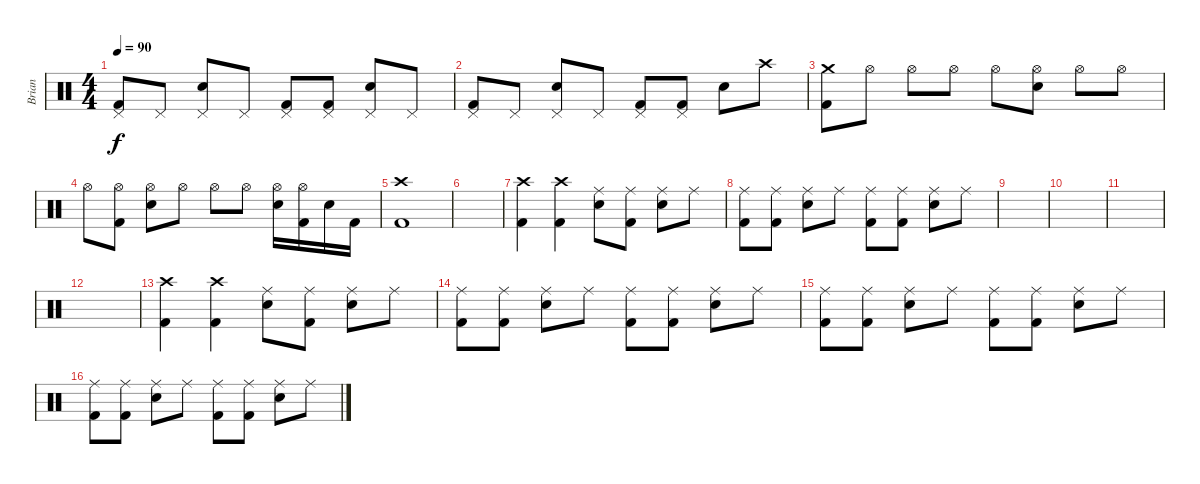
\track ("Brian" "Brian") {instrument percussion}
\staff {score}
\articulation defaults
\ts (4 4)
\tempo 90
\clef neutral
\ks c
("Pedal Hi-Hat (hit)" "Kick (hit) 2").8{dy f} "Pedal Hi-Hat (hit)".8 ("Pedal Hi-Hat (hit)" "Electric Snare (hit)").8 "Pedal Hi-Hat (hit)".8 ("Pedal Hi-Hat (hit)" "Kick (hit) 2").8 ("Pedal Hi-Hat (hit)" "Kick (hit) 2").8 ("Pedal Hi-Hat (hit)" "Electric Snare (hit)").8 "Pedal Hi-Hat (hit)".8 |
("Pedal Hi-Hat (hit)" "Kick (hit) 2").8 "Pedal Hi-Hat (hit)".8 ("Pedal Hi-Hat (hit)" "Electric Snare (hit)").8 "Pedal Hi-Hat (hit)".8 ("Pedal Hi-Hat (hit)" "Kick (hit) 2").8 ("Pedal Hi-Hat (hit)" "Kick (hit) 2").8 "Electric Snare (hit)".8 "Crash high (hit)".8 |
("Crash medium (hit)" "Kick (hit) 2").8 "Hi-Hat (open)".8 "Hi-Hat (open)".8 "Hi-Hat (open)".8 "Hi-Hat (open)".8 ("Hi-Hat (open)" "Electric Snare (hit)").8 "Hi-Hat (open)".8 "Hi-Hat (open)".8 |
"Hi-Hat (open)".8 ("Hi-Hat (open)" "Kick (hit) 2").8 ("Hi-Hat (open)" "Electric Snare (hit)").8 "Hi-Hat (open)".8 "Hi-Hat (open)".8 "Hi-Hat (open)".8 ("Hi-Hat (open)" "Electric Snare (hit)").16 ("Hi-Hat (open)" "Kick (hit) 2").16 "Electric Snare (hit)".16 "Kick (hit) 2".16 |
("Crash high (hit)" "Kick (hit) 2").1 |
|
("Crash high (hit)" "Kick (hit) 2").4 ("Crash high (hit)" "Kick (hit) 2").4 ("Ride (middle)" "Electric Snare (hit)").8 ("Ride (middle)" "Kick (hit) 2").8 ("Ride (middle)" "Electric Snare (hit)").8 "Ride (middle)".8 |
("Ride (middle)" "Kick (hit) 2").8 ("Ride (middle)" "Kick (hit) 2").8 ("Ride (middle)" "Electric Snare (hit)").8 "Ride (middle)".8 ("Ride (middle)" "Kick (hit) 2").8 ("Ride (middle)" "Kick (hit) 2").8 ("Ride (middle)" "Electric Snare (hit)").8 "Ride (middle)".8 |
|
|
|
|
("Crash high (hit)" "Kick (hit) 2").4 ("Crash high (hit)" "Kick (hit) 2").4 ("Ride (middle)" "Electric Snare (hit)").8 ("Ride (middle)" "Kick (hit) 2").8 ("Ride (middle)" "Electric Snare (hit)").8 "Ride (middle)".8 |
("Ride (middle)" "Kick (hit) 2").8 ("Ride (middle)" "Kick (hit) 2").8 ("Ride (middle)" "Electric Snare (hit)").8 "Ride (middle)".8 ("Ride (middle)" "Kick (hit) 2").8 ("Ride (middle)" "Kick (hit) 2").8 ("Ride (middle)" "Electric Snare (hit)").8 "Ride (middle)".8 |
("Ride (middle)" "Kick (hit) 2").8 ("Ride (middle)" "Kick (hit) 2").8 ("Ride (middle)" "Electric Snare (hit)").8 "Ride (middle)".8 ("Ride (middle)" "Kick (hit) 2").8 ("Ride (middle)" "Kick (hit) 2").8 ("Ride (middle)" "Electric Snare (hit)").8 "Ride (middle)".8 |
("Ride (middle)" "Kick (hit) 2").8 ("Ride (middle)" "Kick (hit) 2").8 ("Ride (middle)" "Electric Snare (hit)").8 "Ride (middle)".8 ("Ride (middle)" "Kick (hit) 2").8 ("Ride (middle)" "Kick (hit) 2").8 ("Ride (middle)" "Electric Snare (hit)").8 "Ride (middle)".8
